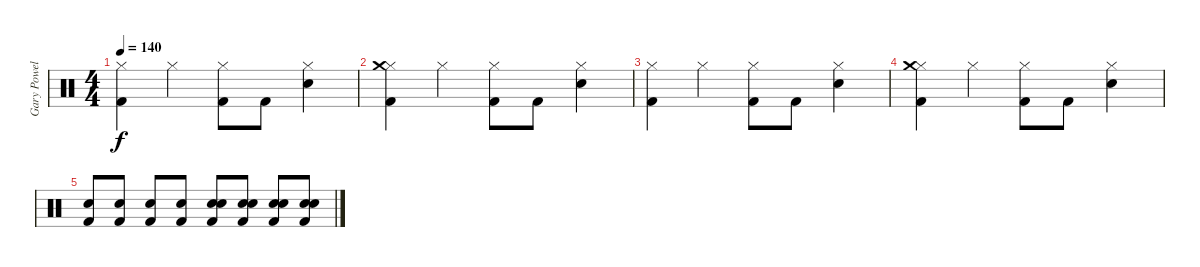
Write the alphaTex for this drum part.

\track ("Gary Powell (Drums)" "Gary Powel") {instrument percussion}
\staff {score}
\articulation defaults
\ts (4 4)
\tempo 140
\clef neutral
\ks c
("Kick (hit) 2" "Hi-Hat (closed)").4{dy f} "Hi-Hat (closed)".4 ("Kick (hit) 2" "Hi-Hat (closed)").8 "Kick (hit) 2".8 ("Hi-Hat (closed)" "Snare (hit) 2").4 |
("Kick (hit) 2" "Hi-Hat (closed)" "Crash medium (hit)").4 "Hi-Hat (closed)".4 ("Kick (hit) 2" "Hi-Hat (closed)").8 "Kick (hit) 2".8 ("Hi-Hat (closed)" "Snare (hit) 2").4 |
("Kick (hit) 2" "Hi-Hat (closed)").4 "Hi-Hat (closed)".4 ("Kick (hit) 2" "Hi-Hat (closed)").8 "Kick (hit) 2".8 ("Hi-Hat (closed)" "Snare (hit) 2").4 |
("Kick (hit) 2" "Hi-Hat (closed)" "Crash medium (hit)").4 "Hi-Hat (closed)".4 ("Kick (hit) 2" "Hi-Hat (closed)").8 "Kick (hit) 2".8 ("Hi-Hat (closed)" "Snare (hit) 2").4 |
("Kick (hit) 2" "Snare (hit) 2").8 ("Kick (hit) 2" "Snare (hit) 2").8 ("Kick (hit) 2" "Snare (hit) 2").8 ("Kick (hit) 2" "Snare (hit) 2").8 ("Kick (hit) 2" "Snare (hit) 2" "Snare (hit) 2").8 ("Kick (hit) 2" "Snare (hit) 2" "Snare (hit) 2").8 ("Kick (hit) 2" "Snare (hit) 2" "Snare (hit) 2").8 ("Kick (hit) 2" "Snare (hit) 2" "Snare (hit) 2").8
